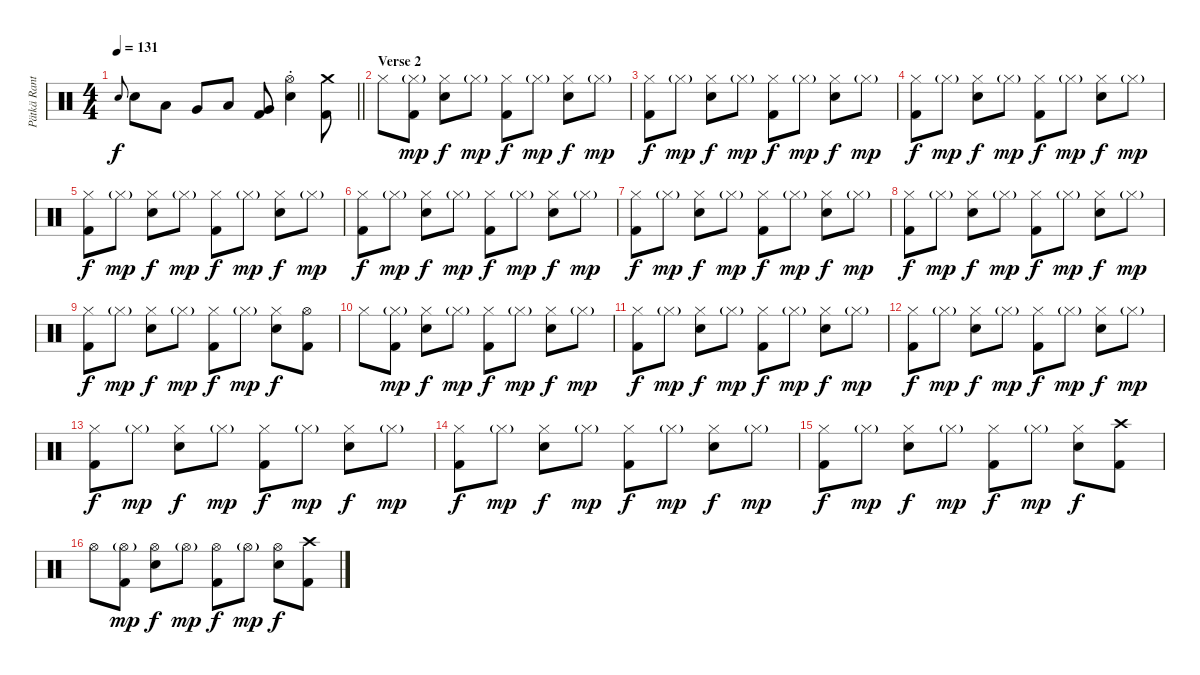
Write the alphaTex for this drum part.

\track ("Pätkä Rantala (Drums)" "Pätkä Rant") {instrument percussion}
\staff {score}
\articulation defaults
\ts (4 4)
\tempo 131
\clef neutral
\barLineRight lightlight
\ks c "Snare (hit) 2".8{gr onbeat dy f} "Snare (hit) 2".8 "Low Tom (hit)".8 "Very Low Tom (hit)".8 "Low Floor Tom (hit)".8
("Very Low Tom (hit)" "Kick (hit) 2").8 ("Hi-Hat (open)"{st} "Snare (hit) 2").4 ("Crash medium (hit)" "Kick (hit) 2").8 |
\section ("" "Verse 2")
"Hi-Hat (closed)".8 ("Hi-Hat (closed)"{g} "Kick (hit) 2").8{dy mp} ("Hi-Hat (closed)" "Snare (hit) 2").8{dy f} "Hi-Hat (closed)"{g}.8{dy mp} ("Hi-Hat (closed)" "Kick (hit) 2").8{dy f} "Hi-Hat (closed)"{g}.8{dy mp} ("Hi-Hat (closed)" "Snare (hit) 2").8{dy f} "Hi-Hat (closed)"{g}.8{dy mp} |
("Hi-Hat (closed)" "Kick (hit) 2").8{dy f} "Hi-Hat (closed)"{g}.8{dy mp} ("Hi-Hat (closed)" "Snare (hit) 2").8{dy f} "Hi-Hat (closed)"{g}.8{dy mp} ("Hi-Hat (closed)" "Kick (hit) 2").8{dy f} "Hi-Hat (closed)"{g}.8{dy mp} ("Hi-Hat (closed)" "Snare (hit) 2").8{dy f} "Hi-Hat (closed)"{g}.8{dy mp} |
("Hi-Hat (closed)" "Kick (hit) 2").8{dy f} "Hi-Hat (closed)"{g}.8{dy mp} ("Hi-Hat (closed)" "Snare (hit) 2").8{dy f} "Hi-Hat (closed)"{g}.8{dy mp} ("Hi-Hat (closed)" "Kick (hit) 2").8{dy f} "Hi-Hat (closed)"{g}.8{dy mp} ("Hi-Hat (closed)" "Snare (hit) 2").8{dy f} "Hi-Hat (closed)"{g}.8{dy mp} |
("Hi-Hat (closed)" "Kick (hit) 2").8{dy f} "Hi-Hat (closed)"{g}.8{dy mp} ("Hi-Hat (closed)" "Snare (hit) 2").8{dy f} "Hi-Hat (closed)"{g}.8{dy mp} ("Hi-Hat (closed)" "Kick (hit) 2").8{dy f} "Hi-Hat (closed)"{g}.8{dy mp} ("Hi-Hat (closed)" "Snare (hit) 2").8{dy f} "Hi-Hat (closed)"{g}.8{dy mp} |
("Hi-Hat (closed)" "Kick (hit) 2").8{dy f} "Hi-Hat (closed)"{g}.8{dy mp} ("Hi-Hat (closed)" "Snare (hit) 2").8{dy f} "Hi-Hat (closed)"{g}.8{dy mp} ("Hi-Hat (closed)" "Kick (hit) 2").8{dy f} "Hi-Hat (closed)"{g}.8{dy mp} ("Hi-Hat (closed)" "Snare (hit) 2").8{dy f} "Hi-Hat (closed)"{g}.8{dy mp} |
("Hi-Hat (closed)" "Kick (hit) 2").8{dy f} "Hi-Hat (closed)"{g}.8{dy mp} ("Hi-Hat (closed)" "Snare (hit) 2").8{dy f} "Hi-Hat (closed)"{g}.8{dy mp} ("Hi-Hat (closed)" "Kick (hit) 2").8{dy f} "Hi-Hat (closed)"{g}.8{dy mp} ("Hi-Hat (closed)" "Snare (hit) 2").8{dy f} "Hi-Hat (closed)"{g}.8{dy mp} |
("Hi-Hat (closed)" "Kick (hit) 2").8{dy f} "Hi-Hat (closed)"{g}.8{dy mp} ("Hi-Hat (closed)" "Snare (hit) 2").8{dy f} "Hi-Hat (closed)"{g}.8{dy mp} ("Hi-Hat (closed)" "Kick (hit) 2").8{dy f} "Hi-Hat (closed)"{g}.8{dy mp} ("Hi-Hat (closed)" "Snare (hit) 2").8{dy f} "Hi-Hat (closed)"{g}.8{dy mp} |
("Hi-Hat (closed)" "Kick (hit) 2").8{dy f} "Hi-Hat (closed)"{g}.8{dy mp} ("Hi-Hat (closed)" "Snare (hit) 2").8{dy f} "Hi-Hat (closed)"{g}.8{dy mp} ("Hi-Hat (closed)" "Kick (hit) 2").8{dy f} "Hi-Hat (closed)"{g}.8{dy mp} ("Hi-Hat (closed)" "Snare (hit) 2").8{dy f} ("Hi-Hat (open)" "Kick (hit) 2").8 |
"Hi-Hat (closed)".8 ("Hi-Hat (closed)"{g} "Kick (hit) 2").8{dy mp} ("Hi-Hat (closed)" "Snare (hit) 2").8{dy f} "Hi-Hat (closed)"{g}.8{dy mp} ("Hi-Hat (closed)" "Kick (hit) 2").8{dy f} "Hi-Hat (closed)"{g}.8{dy mp} ("Hi-Hat (closed)" "Snare (hit) 2").8{dy f} "Hi-Hat (closed)"{g}.8{dy mp} |
("Hi-Hat (closed)" "Kick (hit) 2").8{dy f} "Hi-Hat (closed)"{g}.8{dy mp} ("Hi-Hat (closed)" "Snare (hit) 2").8{dy f} "Hi-Hat (closed)"{g}.8{dy mp} ("Hi-Hat (closed)" "Kick (hit) 2").8{dy f} "Hi-Hat (closed)"{g}.8{dy mp} ("Hi-Hat (closed)" "Snare (hit) 2").8{dy f} "Hi-Hat (closed)"{g}.8{dy mp} |
("Hi-Hat (closed)" "Kick (hit) 2").8{dy f} "Hi-Hat (closed)"{g}.8{dy mp} ("Hi-Hat (closed)" "Snare (hit) 2").8{dy f} "Hi-Hat (closed)"{g}.8{dy mp} ("Hi-Hat (closed)" "Kick (hit) 2").8{dy f} "Hi-Hat (closed)"{g}.8{dy mp} ("Hi-Hat (closed)" "Snare (hit) 2").8{dy f} "Hi-Hat (closed)"{g}.8{dy mp} |
("Hi-Hat (closed)" "Kick (hit) 2").8{dy f} "Hi-Hat (closed)"{g}.8{dy mp} ("Hi-Hat (closed)" "Snare (hit) 2").8{dy f} "Hi-Hat (closed)"{g}.8{dy mp} ("Hi-Hat (closed)" "Kick (hit) 2").8{dy f} "Hi-Hat (closed)"{g}.8{dy mp} ("Hi-Hat (closed)" "Snare (hit) 2").8{dy f} "Hi-Hat (closed)"{g}.8{dy mp} |
("Hi-Hat (closed)" "Kick (hit) 2").8{dy f} "Hi-Hat (closed)"{g}.8{dy mp} ("Hi-Hat (closed)" "Snare (hit) 2").8{dy f} "Hi-Hat (closed)"{g}.8{dy mp} ("Hi-Hat (closed)" "Kick (hit) 2").8{dy f} "Hi-Hat (closed)"{g}.8{dy mp} ("Hi-Hat (closed)" "Snare (hit) 2").8{dy f} "Hi-Hat (closed)"{g}.8{dy mp} |
("Hi-Hat (closed)" "Kick (hit) 2").8{dy f} "Hi-Hat (closed)"{g}.8{dy mp} ("Hi-Hat (closed)" "Snare (hit) 2").8{dy f} "Hi-Hat (closed)"{g}.8{dy mp} ("Hi-Hat (closed)" "Kick (hit) 2").8{dy f} "Hi-Hat (closed)"{g}.8{dy mp} ("Hi-Hat (closed)" "Snare (hit) 2").8{dy f} ("Crash high (hit)" "Kick (hit) 2").8 |
"Hi-Hat (open)".8 ("Hi-Hat (open)"{g} "Kick (hit) 2").8{dy mp} ("Hi-Hat (open)" "Snare (hit) 2").8{dy f} "Hi-Hat (open)"{g}.8{dy mp} ("Hi-Hat (open)" "Kick (hit) 2").8{dy f} "Hi-Hat (open)"{g}.8{dy mp} ("Hi-Hat (open)" "Snare (hit) 2").8{dy f} ("Crash high (hit)" "Kick (hit) 2").8
